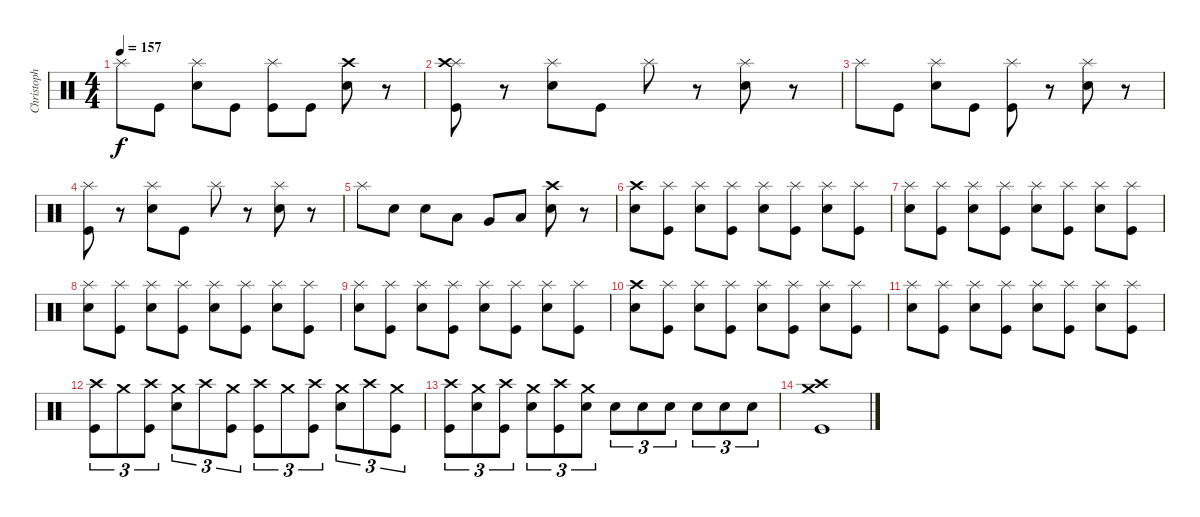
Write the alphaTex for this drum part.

\track ("Christoph" "Christoph") {instrument percussion}
\staff {score}
\articulation defaults
\ts (4 4)
\tempo 157
\clef neutral
\ks c "Splash (hit)".8{dy f} "Kick (hit)".8
("Splash (hit)" "Snare (hit) 2").8 "Kick (hit)".8 ("Splash (hit)" "Kick (hit)").8 "Kick (hit)".8 ("Snare (hit) 2" "Crash high (hit)").8 r.8 |
("Splash (hit)" "Crash high (hit)" "Kick (hit)").8 r.8 ("Splash (hit)" "Snare (hit) 2").8 "Kick (hit)".8 "Splash (hit)".8 r.8 ("Splash (hit)" "Snare (hit) 2").8 r.8 |
"Splash (hit)".8 "Kick (hit)".8 ("Splash (hit)" "Snare (hit) 2").8 "Kick (hit)".8 ("Splash (hit)" "Kick (hit)").8 r.8 ("Splash (hit)" "Snare (hit) 2").8 r.8 |
("Splash (hit)" "Kick (hit)").8 r.8 ("Splash (hit)" "Snare (hit) 2").8 "Kick (hit)".8 "Splash (hit)".8 r.8 ("Splash (hit)" "Snare (hit) 2").8 r.8 |
"Splash (hit)".8 "Snare (hit) 2".8 "Snare (hit) 2".8 "Low Floor Tom (hit)".8 "Very Low Tom (hit)".8 "Low Tom (hit)".8 ("Snare (hit) 2" "Crash high (hit)").8 r.8 |
("Crash high (hit)" "Snare (hit) 2").8 ("Splash (hit)" "Kick (hit)").8 ("Splash (hit)" "Snare (hit) 2").8 ("Splash (hit)" "Kick (hit)").8 ("Splash (hit)" "Snare (hit) 2").8 ("Splash (hit)" "Kick (hit)").8 ("Splash (hit)" "Snare (hit) 2").8 ("Splash (hit)" "Kick (hit)").8 |
("Splash (hit)" "Snare (hit) 2").8 ("Splash (hit)" "Kick (hit)").8 ("Splash (hit)" "Snare (hit) 2").8 ("Splash (hit)" "Kick (hit)").8 ("Splash (hit)" "Snare (hit) 2").8 ("Splash (hit)" "Kick (hit)").8 ("Splash (hit)" "Snare (hit) 2").8 ("Splash (hit)" "Kick (hit)").8 |
("Splash (hit)" "Snare (hit) 2").8 ("Splash (hit)" "Kick (hit)").8 ("Splash (hit)" "Snare (hit) 2").8 ("Splash (hit)" "Kick (hit)").8 ("Splash (hit)" "Snare (hit) 2").8 ("Splash (hit)" "Kick (hit)").8 ("Splash (hit)" "Snare (hit) 2").8 ("Splash (hit)" "Kick (hit)").8 |
("Splash (hit)" "Snare (hit) 2").8 ("Splash (hit)" "Kick (hit)").8 ("Splash (hit)" "Snare (hit) 2").8 ("Splash (hit)" "Kick (hit)").8 ("Splash (hit)" "Snare (hit) 2").8 ("Splash (hit)" "Kick (hit)").8 ("Splash (hit)" "Snare (hit) 2").8 ("Splash (hit)" "Kick (hit)").8 |
("Crash high (hit)" "Snare (hit) 2").8 ("Splash (hit)" "Kick (hit)").8 ("Splash (hit)" "Snare (hit) 2").8 ("Splash (hit)" "Kick (hit)").8 ("Splash (hit)" "Snare (hit) 2").8 ("Splash (hit)" "Kick (hit)").8 ("Splash (hit)" "Snare (hit) 2").8 ("Splash (hit)" "Kick (hit)").8 |
("Splash (hit)" "Snare (hit) 2").8 ("Splash (hit)" "Kick (hit)").8 ("Splash (hit)" "Snare (hit) 2").8 ("Splash (hit)" "Kick (hit)").8 ("Splash (hit)" "Snare (hit) 2").8 ("Splash (hit)" "Kick (hit)").8 ("Splash (hit)" "Snare (hit) 2").8 ("Splash (hit)" "Kick (hit)").8 |
("Crash high (hit)" "Kick (hit)").8{tu (3 2)} "Crash medium (hit)".8{tu (3 2)} ("Crash high (hit)" "Kick (hit)").8{tu (3 2)} ("Crash medium (hit)" "Snare (hit) 2").8{tu (3 2)} "Crash high (hit)".8{tu (3 2)} ("Crash medium (hit)" "Kick (hit)").8{tu (3 2)} ("Crash high (hit)" "Kick (hit)").8{tu (3 2)} "Crash medium (hit)".8{tu (3 2)} ("Crash high (hit)" "Kick (hit)").8{tu (3 2)} ("Crash medium (hit)" "Snare (hit) 2").8{tu (3 2)} "Crash high (hit)".8{tu (3 2)} ("Crash medium (hit)" "Kick (hit)").8{tu (3 2)} |
("Crash high (hit)" "Kick (hit)").8{tu (3 2)} ("Crash medium (hit)" "Snare (hit) 2").8{tu (3 2)} ("Crash high (hit)" "Kick (hit)").8{tu (3 2)} ("Crash medium (hit)" "Snare (hit) 2").8{tu (3 2)} ("Crash high (hit)" "Kick (hit)").8{tu (3 2)} ("Crash medium (hit)" "Snare (hit) 2").8{tu (3 2)} "Snare (hit) 2".8{tu (3 2)} "Snare (hit) 2".8{tu (3 2)} "Snare (hit) 2".8{tu (3 2)} "Snare (hit) 2".8{tu (3 2)} "Snare (hit) 2".8{tu (3 2)} "Snare (hit) 2".8{tu (3 2)} |
("Crash high (hit)" "Crash medium (hit)" "Kick (hit)").1
